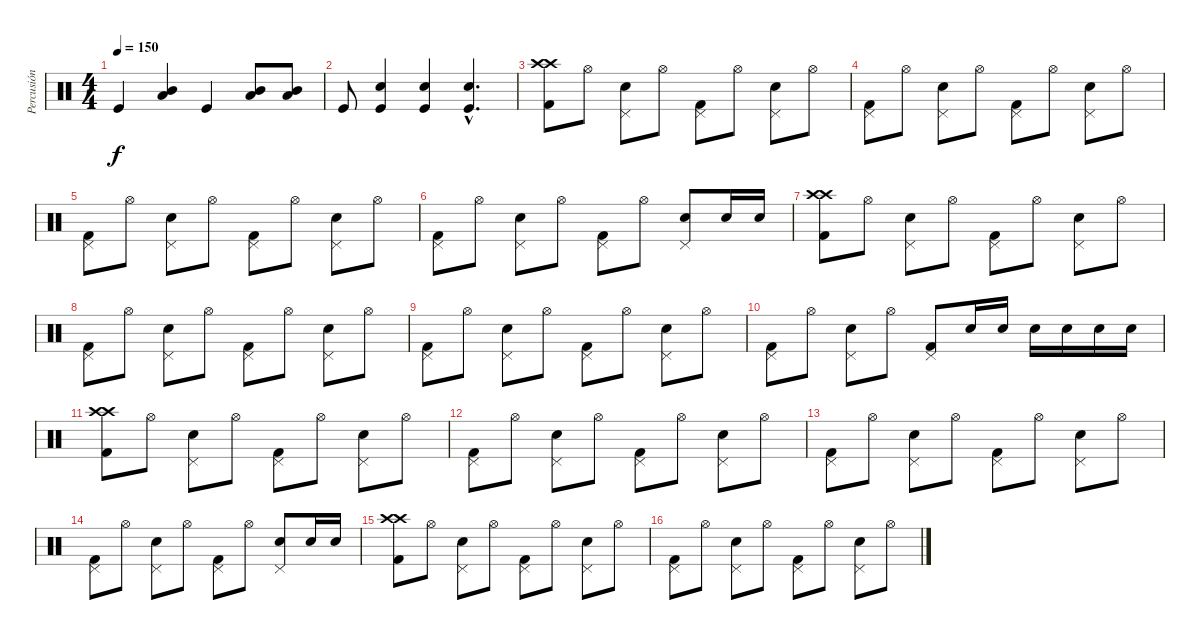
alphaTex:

\track ("Percusión" "Percusión") {instrument percussion}
\staff {score}
\articulation defaults
\ts (4 4)
\tempo 150
\clef neutral
\ks c "Kick (hit)".4{dy f}
("Low Tom (hit)" "Mid Tom (hit)").4 "Kick (hit)".4 ("Low Tom (hit)" "Mid Tom (hit)").8 ("Low Tom (hit)" "Mid Tom (hit)").8 |
"Kick (hit)".8 ("Electric Snare (hit)" "Kick (hit)").4 ("Electric Snare (hit)" "Kick (hit)").4 ("Electric Snare (hit)"{hac} "Kick (hit)"{hac}).4{d} |
("Crash high (hit)" "Crash high (hit)" "Kick (hit) 2").8 "Hi-Hat (open)".8 ("Pedal Hi-Hat (hit)" "Electric Snare (hit)").8 "Hi-Hat (open)".8 ("Pedal Hi-Hat (hit)" "Kick (hit) 2").8 "Hi-Hat (open)".8 ("Pedal Hi-Hat (hit)" "Electric Snare (hit)").8 "Hi-Hat (open)".8 |
("Pedal Hi-Hat (hit)" "Kick (hit) 2").8 "Hi-Hat (open)".8 ("Pedal Hi-Hat (hit)" "Electric Snare (hit)").8 "Hi-Hat (open)".8 ("Pedal Hi-Hat (hit)" "Kick (hit) 2").8 "Hi-Hat (open)".8 ("Pedal Hi-Hat (hit)" "Electric Snare (hit)").8 "Hi-Hat (open)".8 |
("Pedal Hi-Hat (hit)" "Kick (hit) 2").8 "Hi-Hat (open)".8 ("Pedal Hi-Hat (hit)" "Electric Snare (hit)").8 "Hi-Hat (open)".8 ("Pedal Hi-Hat (hit)" "Kick (hit) 2").8 "Hi-Hat (open)".8 ("Pedal Hi-Hat (hit)" "Electric Snare (hit)").8 "Hi-Hat (open)".8 |
("Pedal Hi-Hat (hit)" "Kick (hit) 2").8 "Hi-Hat (open)".8 ("Pedal Hi-Hat (hit)" "Electric Snare (hit)").8 "Hi-Hat (open)".8 ("Pedal Hi-Hat (hit)" "Kick (hit) 2").8 "Hi-Hat (open)".8 ("Pedal Hi-Hat (hit)" "Electric Snare (hit)").8 "Electric Snare (hit)".16 "Electric Snare (hit)".16 |
("Crash high (hit)" "Crash high (hit)" "Kick (hit) 2").8 "Hi-Hat (open)".8 ("Pedal Hi-Hat (hit)" "Electric Snare (hit)").8 "Hi-Hat (open)".8 ("Pedal Hi-Hat (hit)" "Kick (hit) 2").8 "Hi-Hat (open)".8 ("Pedal Hi-Hat (hit)" "Electric Snare (hit)").8 "Hi-Hat (open)".8 |
("Pedal Hi-Hat (hit)" "Kick (hit) 2").8 "Hi-Hat (open)".8 ("Pedal Hi-Hat (hit)" "Electric Snare (hit)").8 "Hi-Hat (open)".8 ("Pedal Hi-Hat (hit)" "Kick (hit) 2").8 "Hi-Hat (open)".8 ("Pedal Hi-Hat (hit)" "Electric Snare (hit)").8 "Hi-Hat (open)".8 |
("Pedal Hi-Hat (hit)" "Kick (hit) 2").8 "Hi-Hat (open)".8 ("Pedal Hi-Hat (hit)" "Electric Snare (hit)").8 "Hi-Hat (open)".8 ("Pedal Hi-Hat (hit)" "Kick (hit) 2").8 "Hi-Hat (open)".8 ("Pedal Hi-Hat (hit)" "Electric Snare (hit)").8 "Hi-Hat (open)".8 |
("Pedal Hi-Hat (hit)" "Kick (hit) 2").8 "Hi-Hat (open)".8 ("Pedal Hi-Hat (hit)" "Electric Snare (hit)").8 "Hi-Hat (open)".8 ("Pedal Hi-Hat (hit)" "Kick (hit) 2").8 "Electric Snare (hit)".16 "Electric Snare (hit)".16 "Electric Snare (hit)".16 "Electric Snare (hit)".16 "Electric Snare (hit)".16 "Electric Snare (hit)".16 |
("Crash high (hit)" "Crash high (hit)" "Kick (hit) 2").8 "Hi-Hat (open)".8 ("Pedal Hi-Hat (hit)" "Electric Snare (hit)").8 "Hi-Hat (open)".8 ("Pedal Hi-Hat (hit)" "Kick (hit) 2").8 "Hi-Hat (open)".8 ("Pedal Hi-Hat (hit)" "Electric Snare (hit)").8 "Hi-Hat (open)".8 |
("Pedal Hi-Hat (hit)" "Kick (hit) 2").8 "Hi-Hat (open)".8 ("Pedal Hi-Hat (hit)" "Electric Snare (hit)").8 "Hi-Hat (open)".8 ("Pedal Hi-Hat (hit)" "Kick (hit) 2").8 "Hi-Hat (open)".8 ("Pedal Hi-Hat (hit)" "Electric Snare (hit)").8 "Hi-Hat (open)".8 |
("Pedal Hi-Hat (hit)" "Kick (hit) 2").8 "Hi-Hat (open)".8 ("Pedal Hi-Hat (hit)" "Electric Snare (hit)").8 "Hi-Hat (open)".8 ("Pedal Hi-Hat (hit)" "Kick (hit) 2").8 "Hi-Hat (open)".8 ("Pedal Hi-Hat (hit)" "Electric Snare (hit)").8 "Hi-Hat (open)".8 |
("Pedal Hi-Hat (hit)" "Kick (hit) 2").8 "Hi-Hat (open)".8 ("Pedal Hi-Hat (hit)" "Electric Snare (hit)").8 "Hi-Hat (open)".8 ("Pedal Hi-Hat (hit)" "Kick (hit) 2").8 "Hi-Hat (open)".8 ("Pedal Hi-Hat (hit)" "Electric Snare (hit)").8 "Electric Snare (hit)".16 "Electric Snare (hit)".16 |
("Crash high (hit)" "Crash high (hit)" "Kick (hit) 2").8 "Hi-Hat (open)".8 ("Pedal Hi-Hat (hit)" "Electric Snare (hit)").8 "Hi-Hat (open)".8 ("Pedal Hi-Hat (hit)" "Kick (hit) 2").8 "Hi-Hat (open)".8 ("Pedal Hi-Hat (hit)" "Electric Snare (hit)").8 "Hi-Hat (open)".8 |
("Pedal Hi-Hat (hit)" "Kick (hit) 2").8 "Hi-Hat (open)".8 ("Pedal Hi-Hat (hit)" "Electric Snare (hit)").8 "Hi-Hat (open)".8 ("Pedal Hi-Hat (hit)" "Kick (hit) 2").8 "Hi-Hat (open)".8 ("Pedal Hi-Hat (hit)" "Electric Snare (hit)").8 "Hi-Hat (open)".8
